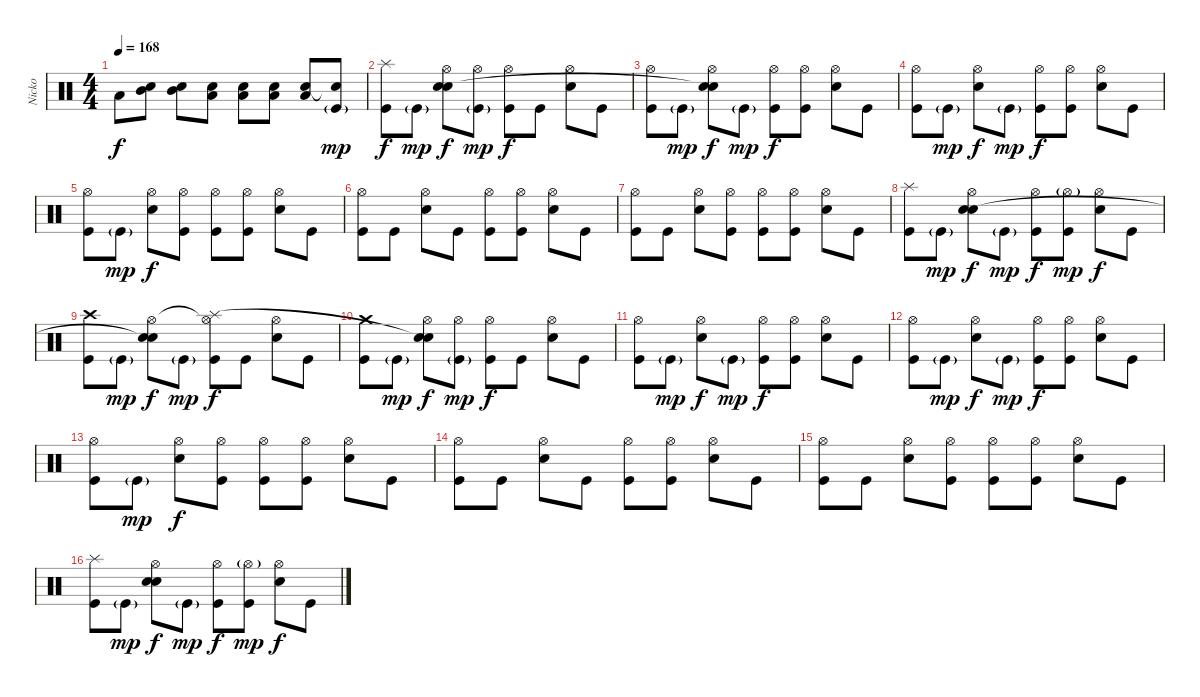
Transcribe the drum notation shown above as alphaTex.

\track ("Nicko" "Nicko") {instrument percussion}
\staff {score}
\articulation defaults
\ts (4 4)
\tempo 168
\clef neutral
\ks c "Low Tom (hit)".8{dy f}
("Mid Tom (hit)" "Electric Snare (hit)").8 ("Mid Tom (hit)" "Electric Snare (hit)").8 ("Low Tom (hit)" "Electric Snare (hit)").8 ("Low Tom (hit)" "Electric Snare (hit)").8 ("Low Tom (hit)" "Electric Snare (hit)").8 ("Low Tom (hit)" "Electric Snare (hit)").8 ("Kick (hit)"{g} "Snare (hit)"{t}).8{dy mp} |
("Kick (hit)" "Splash (hit)").8{dy f} "Kick (hit)"{g}.8{dy mp} ("Electric Snare (hit)" "Hi-Hat (open)" "Snare (hit)").8{dy f} ("Kick (hit)"{g} "Hi-Hat (open)").8{dy mp} ("Kick (hit)" "Hi-Hat (open)").8{dy f} "Kick (hit)".8 ("Electric Snare (hit)" "Hi-Hat (open)").8 "Kick (hit)".8 |
("Kick (hit)" "Hi-Hat (open)").8 "Kick (hit)"{g}.8{dy mp} ("Electric Snare (hit)" "Hi-Hat (open)" "Snare (hit)"{t}).8{dy f} "Kick (hit)"{g}.8{dy mp} ("Kick (hit)" "Hi-Hat (open)").8{dy f} ("Kick (hit)" "Hi-Hat (open)").8 ("Electric Snare (hit)" "Hi-Hat (open)").8 "Kick (hit)".8 |
("Kick (hit)" "Hi-Hat (open)").8 "Kick (hit)"{g}.8{dy mp} ("Electric Snare (hit)" "Hi-Hat (open)").8{dy f} "Kick (hit)"{g}.8{dy mp} ("Kick (hit)" "Hi-Hat (open)").8{dy f} ("Kick (hit)" "Hi-Hat (open)").8 ("Electric Snare (hit)" "Hi-Hat (open)").8 "Kick (hit)".8 |
("Kick (hit)" "Hi-Hat (open)").8 "Kick (hit)"{g}.8{dy mp} ("Electric Snare (hit)" "Hi-Hat (open)").8{dy f} ("Kick (hit)" "Hi-Hat (open)").8 ("Kick (hit)" "Hi-Hat (open)").8 ("Kick (hit)" "Hi-Hat (open)").8 ("Electric Snare (hit)" "Hi-Hat (open)").8 "Kick (hit)".8 |
("Kick (hit)" "Hi-Hat (open)").8 "Kick (hit)".8 ("Electric Snare (hit)" "Hi-Hat (open)").8 "Kick (hit)".8 ("Kick (hit)" "Hi-Hat (open)").8 ("Kick (hit)" "Hi-Hat (open)").8 ("Electric Snare (hit)" "Hi-Hat (open)").8 "Kick (hit)".8 |
("Kick (hit)" "Hi-Hat (open)").8 "Kick (hit)".8 ("Electric Snare (hit)" "Hi-Hat (open)").8 ("Kick (hit)" "Hi-Hat (open)").8 ("Kick (hit)" "Hi-Hat (open)").8 ("Kick (hit)" "Hi-Hat (open)").8 ("Electric Snare (hit)" "Hi-Hat (open)").8 "Kick (hit)".8 |
("Kick (hit)" "Splash (hit)").8 "Kick (hit)"{g}.8{dy mp} ("Electric Snare (hit)" "Hi-Hat (open)" "Snare (hit)").8{dy f} "Kick (hit)"{g}.8{dy mp} ("Kick (hit)" "Hi-Hat (open)").8{dy f} ("Kick (hit)" "Hi-Hat (open)"{g}).8{dy mp} ("Electric Snare (hit)" "Hi-Hat (open)").8{dy f} "Kick (hit)".8 |
("Kick (hit)" "Crash high (hit)").8 "Kick (hit)"{g}.8{dy mp} ("Electric Snare (hit)" "Hi-Hat (open)" "Snare (hit)"{t}).8{dy f} "Kick (hit)"{g}.8{dy mp} ("Kick (hit)" "Hi-Hat (open)"{t} "Splash (hit)").8{dy f} "Kick (hit)".8 ("Electric Snare (hit)" "Hi-Hat (open)").8 "Kick (hit)".8 |
("Kick (hit)" "Crash medium (hit)").8 "Kick (hit)"{g}.8{dy mp} ("Electric Snare (hit)" "Hi-Hat (open)" "Snare (hit)"{t}).8{dy f} ("Kick (hit)"{g} "Hi-Hat (open)").8{dy mp} ("Kick (hit)" "Hi-Hat (open)").8{dy f} "Kick (hit)".8 ("Electric Snare (hit)" "Hi-Hat (open)").8 "Kick (hit)".8 |
("Kick (hit)" "Hi-Hat (open)").8 "Kick (hit)"{g}.8{dy mp} ("Electric Snare (hit)" "Hi-Hat (open)").8{dy f} "Kick (hit)"{g}.8{dy mp} ("Kick (hit)" "Hi-Hat (open)").8{dy f} ("Kick (hit)" "Hi-Hat (open)").8 ("Electric Snare (hit)" "Hi-Hat (open)").8 "Kick (hit)".8 |
("Kick (hit)" "Hi-Hat (open)").8 "Kick (hit)"{g}.8{dy mp} ("Electric Snare (hit)" "Hi-Hat (open)").8{dy f} "Kick (hit)"{g}.8{dy mp} ("Kick (hit)" "Hi-Hat (open)").8{dy f} ("Kick (hit)" "Hi-Hat (open)").8 ("Electric Snare (hit)" "Hi-Hat (open)").8 "Kick (hit)".8 |
("Kick (hit)" "Hi-Hat (open)").8 "Kick (hit)"{g}.8{dy mp} ("Electric Snare (hit)" "Hi-Hat (open)").8{dy f} ("Kick (hit)" "Hi-Hat (open)").8 ("Kick (hit)" "Hi-Hat (open)").8 ("Kick (hit)" "Hi-Hat (open)").8 ("Electric Snare (hit)" "Hi-Hat (open)").8 "Kick (hit)".8 |
("Kick (hit)" "Hi-Hat (open)").8 "Kick (hit)".8 ("Electric Snare (hit)" "Hi-Hat (open)").8 "Kick (hit)".8 ("Kick (hit)" "Hi-Hat (open)").8 ("Kick (hit)" "Hi-Hat (open)").8 ("Electric Snare (hit)" "Hi-Hat (open)").8 "Kick (hit)".8 |
("Kick (hit)" "Hi-Hat (open)").8 "Kick (hit)".8 ("Electric Snare (hit)" "Hi-Hat (open)").8 ("Kick (hit)" "Hi-Hat (open)").8 ("Kick (hit)" "Hi-Hat (open)").8 ("Kick (hit)" "Hi-Hat (open)").8 ("Electric Snare (hit)" "Hi-Hat (open)").8 "Kick (hit)".8 |
("Kick (hit)" "Splash (hit)").8 "Kick (hit)"{g}.8{dy mp} ("Electric Snare (hit)" "Hi-Hat (open)" "Snare (hit)").8{dy f} "Kick (hit)"{g}.8{dy mp} ("Kick (hit)" "Hi-Hat (open)").8{dy f} ("Kick (hit)" "Hi-Hat (open)"{g}).8{dy mp} ("Electric Snare (hit)" "Hi-Hat (open)").8{dy f} "Kick (hit)".8
